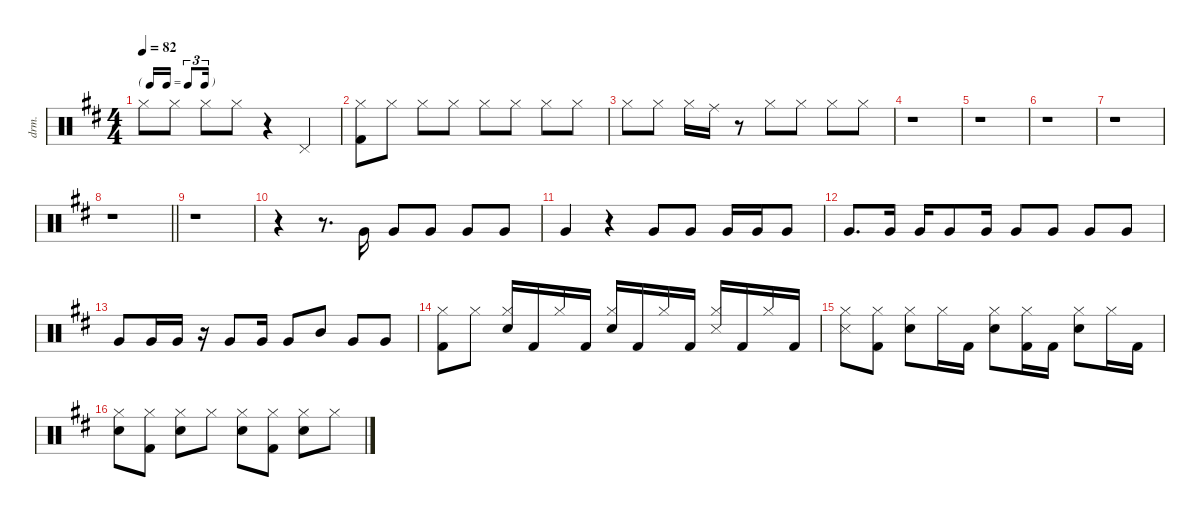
\defaultSystemsLayout 4
\hideDynamics
\bracketExtendMode nobrackets
\otherSystemsTrackNameOrientation horizontal
\track ("Buddy" "drm.") {instrument percussion}
\staff {score}
\articulation defaults
\ts (4 4)
\tf triplet16th
\tempo 82
\clef neutral
\ks d "Hi-Hat (closed)"{acc forcenatural}.8{dy p beam Down} "Hi-Hat (closed)"{acc forcenatural}.8{beam Down} "Hi-Hat (closed)"{acc forcenatural}.8{beam Down} "Hi-Hat (closed)"{acc forcenatural}.8{beam Down}
r.4{beam Down} "Pedal Hi-Hat (hit)"{acc forcenatural}.4{dy mp beam Up} |
("Hi-Hat (closed)"{acc forcenatural} "Kick (hit) 2"{acc forcenatural}).8{dy p beam Down} "Hi-Hat (closed)"{acc forcenatural}.8{beam Down} "Hi-Hat (closed)"{acc forcenatural}.8{beam Down} "Hi-Hat (closed)"{acc forcenatural}.8{beam Down} "Hi-Hat (closed)"{acc forcenatural}.8{beam Down} "Hi-Hat (closed)"{acc forcenatural}.8{beam Down} "Hi-Hat (closed)"{acc forcenatural}.8{beam Down} "Hi-Hat (closed)"{acc forcenatural}.8{beam Down} |
"Hi-Hat (closed)"{acc forcenatural}.8{beam Down} "Hi-Hat (closed)"{acc forcenatural}.8{beam Down} "Hi-Hat (closed)"{acc forcenatural}.16{beam Down} "Ride (middle)"{acc forcenatural}.16{beam Down} r.8{beam Down} "Hi-Hat (closed)"{acc forcenatural}.8{beam Down} "Hi-Hat (closed)"{acc forcenatural}.8{beam Down} "Hi-Hat (closed)"{acc forcenatural}.8{beam Down} "Hi-Hat (closed)"{acc forcenatural}.8{beam Down} |
r.1{beam Down} |
r.1{beam Down} |
r.1{beam Down} |
r.1{beam Down} |
\barLineRight lightlight
r.1{beam Down} |
r.1{beam Down} |
r.4{beam Down} r.8{d beam Down} "Very Low Tom (hit)"{acc forcenatural}.16{dy pp beam Up} "Very Low Tom (hit)"{acc forcenatural}.8{beam Up} "Very Low Tom (hit)"{acc forcenatural}.8{beam Up} "Very Low Tom (hit)"{acc forcenatural}.8{beam Up} "Very Low Tom (hit)"{acc forcenatural}.8{beam Up} |
"Very Low Tom (hit)"{acc forcenatural}.4{beam Up} r.4{beam Up} "Very Low Tom (hit)"{acc forcenatural}.8{beam Up} "Very Low Tom (hit)"{acc forcenatural}.8{beam Up} "Very Low Tom (hit)"{acc forcenatural}.16{beam Up} "Very Low Tom (hit)"{acc forcenatural}.16{beam Up} "Very Low Tom (hit)"{acc forcenatural}.8{beam Up} |
"Very Low Tom (hit)"{acc forcenatural}.8{d beam Up} "Very Low Tom (hit)"{acc forcenatural}.16{beam Up} "Very Low Tom (hit)"{acc forcenatural}.16{beam Up} "Very Low Tom (hit)"{acc forcenatural}.8{beam Up} "Very Low Tom (hit)"{acc forcenatural}.16{beam Up} "Very Low Tom (hit)"{acc forcenatural}.8{beam Up} "Very Low Tom (hit)"{acc forcenatural}.8{beam Up} "Very Low Tom (hit)"{acc forcenatural}.8{beam Up} "Very Low Tom (hit)"{acc forcenatural}.8{beam Up} |
"Very Low Tom (hit)"{acc forcenatural}.8{beam Up} "Very Low Tom (hit)"{acc forcenatural}.16{beam Up} "Very Low Tom (hit)"{acc forcenatural}.16{beam Up} r.16{beam Up} "Very Low Tom (hit)"{acc forcenatural}.8{beam Up} "Very Low Tom (hit)"{acc forcenatural}.16{beam Up} "Very Low Tom (hit)"{acc forcenatural}.8{beam Up} "Mid Tom (hit)"{acc forcenatural}.8{beam Up} "Very Low Tom (hit)"{acc forcenatural}.8{beam Up} "Very Low Tom (hit)"{acc forcenatural}.8{beam Up} |
("Hi-Hat (closed)"{acc forcenatural} "Kick (hit) 2"{acc forcenatural}).8{dy mp beam Down} "Hi-Hat (closed)"{acc forcenatural}.8{beam Down} ("Hi-Hat (closed)"{acc forcenatural} "Snare (hit) 2"{acc forcenatural}).16{beam Up} "Kick (hit) 2"{acc forcenatural}.16{beam Up} "Hi-Hat (closed)"{acc forcenatural}.16{beam Up} "Kick (hit) 2"{acc forcenatural}.16{beam Up} ("Hi-Hat (closed)"{acc forcenatural} "Snare (hit) 2"{acc forcenatural}).16{beam Up} "Kick (hit) 2"{acc forcenatural}.16{beam Up} "Hi-Hat (closed)"{acc forcenatural}.16{beam Up} "Kick (hit) 2"{acc forcenatural}.16{beam Up} ("Hi-Hat (closed)"{acc forcenatural} "Snare (side stick) 3"{acc forcenatural}).16{beam Up} "Kick (hit) 2"{acc forcenatural}.16{beam Up} "Hi-Hat (closed)"{acc forcenatural}.16{beam Up} "Kick (hit) 2"{acc forcenatural}.16{beam Up} |
("Hi-Hat (closed)"{acc forcenatural} "Snare (side stick) 3"{acc forcenatural}).8{beam Down} ("Hi-Hat (closed)"{acc forcenatural} "Kick (hit) 2"{acc forcenatural}).8{beam Down} ("Hi-Hat (closed)"{acc forcenatural} "Snare (hit) 2"{acc forcenatural}).8{beam Down} "Hi-Hat (closed)"{acc forcenatural}.16{beam Down} "Kick (hit) 2"{acc forcenatural}.16{beam Down} ("Hi-Hat (closed)"{acc forcenatural} "Snare (hit) 2"{acc forcenatural}).8{beam Down} ("Hi-Hat (closed)"{acc forcenatural} "Kick (hit) 2"{acc forcenatural}).16{beam Down} "Kick (hit) 2"{acc forcenatural}.16{beam Down} ("Hi-Hat (closed)"{acc forcenatural} "Snare (hit) 2"{acc forcenatural}).8{beam Down} "Hi-Hat (closed)"{acc forcenatural}.16{beam Down} "Kick (hit) 2"{acc forcenatural}.16{beam Down} |
("Hi-Hat (closed)"{acc forcenatural} "Snare (hit) 2"{acc forcenatural}).8{dy mf beam Down} ("Hi-Hat (closed)"{acc forcenatural} "Kick (hit) 2"{acc forcenatural}).8{beam Down} ("Hi-Hat (closed)"{acc forcenatural} "Snare (hit) 2"{acc forcenatural}).8{beam Down} "Hi-Hat (closed)"{acc forcenatural}.8{beam Down} ("Hi-Hat (closed)"{acc forcenatural} "Snare (hit) 2"{acc forcenatural}).8{beam Down} ("Hi-Hat (closed)"{acc forcenatural} "Kick (hit) 2"{acc forcenatural}).8{beam Down} ("Hi-Hat (closed)"{acc forcenatural} "Snare (hit) 2"{acc forcenatural}).8{beam Down} "Hi-Hat (closed)"{acc forcenatural}.8{beam Down}
